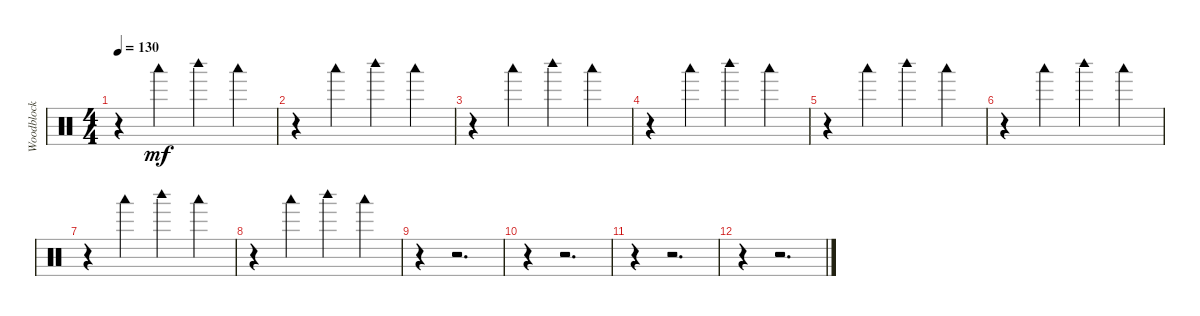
\track ("Woodblock" "Woodblock") {instrument percussion}
\staff {score}
\articulation defaults
\ts (4 4)
\tempo 130
\clef neutral
\ks c
r.4{dy mf} "Woodblock low (hit)".4 "Woodblock high (hit)".4 "Woodblock low (hit)".4 |
r.4 "Woodblock low (hit)".4 "Woodblock high (hit)".4 "Woodblock low (hit)".4 |
r.4 "Woodblock low (hit)".4 "Woodblock high (hit)".4 "Woodblock low (hit)".4 |
r.4 "Woodblock low (hit)".4 "Woodblock high (hit)".4 "Woodblock low (hit)".4 |
r.4 "Woodblock low (hit)".4 "Woodblock high (hit)".4 "Woodblock low (hit)".4 |
r.4 "Woodblock low (hit)".4 "Woodblock high (hit)".4 "Woodblock low (hit)".4 |
r.4 "Woodblock low (hit)".4 "Woodblock high (hit)".4 "Woodblock low (hit)".4 |
r.4 "Woodblock low (hit)".4 "Woodblock high (hit)".4 "Woodblock low (hit)".4 |
r.4 r.2{d} |
r.4 r.2{d} |
r.4 r.2{d} |
r.4 r.2{d}
